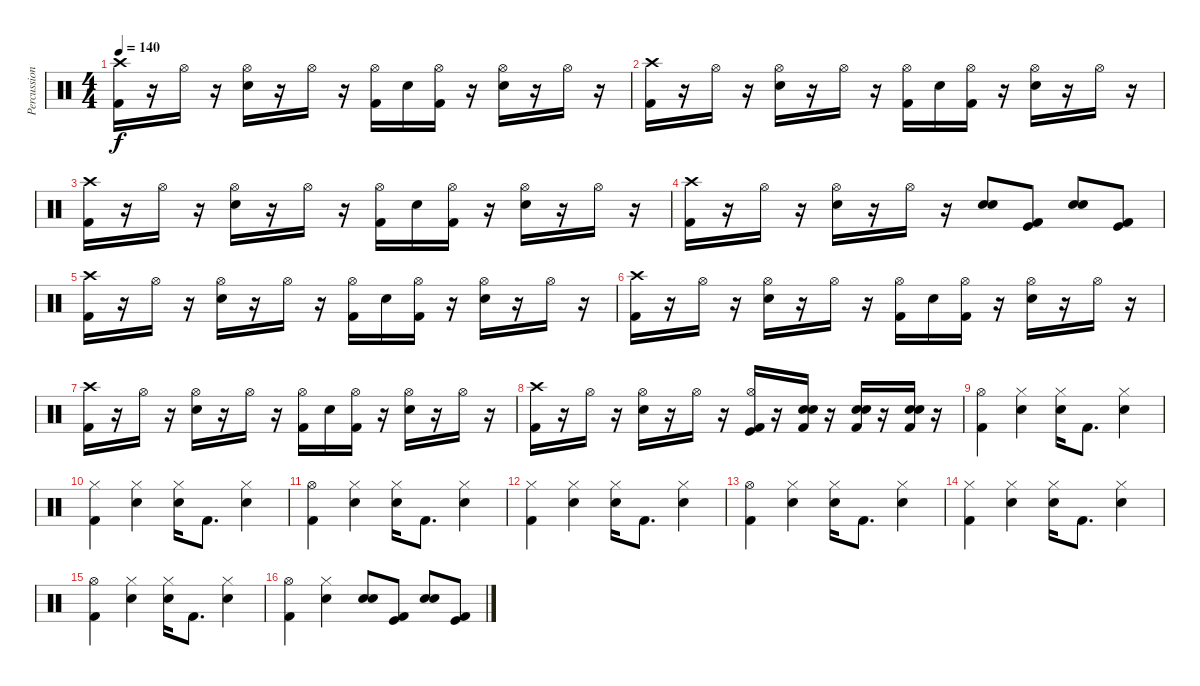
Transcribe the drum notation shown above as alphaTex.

\track ("Percussions" "Percussion") {instrument percussion}
\staff {score}
\articulation defaults
\ts (4 4)
\tempo 140
\clef neutral
\ks c
("Crash high (hit)" "Kick (hit) 2").16{dy f} r.16 "Hi-Hat (open)".16 r.16 ("Hi-Hat (open)" "Electric Snare (hit)").16 r.16 "Hi-Hat (open)".16 r.16 ("Hi-Hat (open)" "Kick (hit) 2").16 "Electric Snare (hit)".16 ("Hi-Hat (open)" "Kick (hit) 2").16 r.16 ("Hi-Hat (open)" "Electric Snare (hit)").16 r.16 "Hi-Hat (open)".16 r.16 |
("Crash high (hit)" "Kick (hit) 2").16 r.16 "Hi-Hat (open)".16 r.16 ("Hi-Hat (open)" "Electric Snare (hit)").16 r.16 "Hi-Hat (open)".16 r.16 ("Hi-Hat (open)" "Kick (hit) 2").16 "Electric Snare (hit)".16 ("Hi-Hat (open)" "Kick (hit) 2").16 r.16 ("Hi-Hat (open)" "Electric Snare (hit)").16 r.16 "Hi-Hat (open)".16 r.16 |
("Crash high (hit)" "Kick (hit) 2").16 r.16 "Hi-Hat (open)".16 r.16 ("Hi-Hat (open)" "Electric Snare (hit)").16 r.16 "Hi-Hat (open)".16 r.16 ("Hi-Hat (open)" "Kick (hit) 2").16 "Electric Snare (hit)".16 ("Hi-Hat (open)" "Kick (hit) 2").16 r.16 ("Hi-Hat (open)" "Electric Snare (hit)").16 r.16 "Hi-Hat (open)".16 r.16 |
("Crash high (hit)" "Kick (hit) 2").16 r.16 "Hi-Hat (open)".16 r.16 ("Hi-Hat (open)" "Electric Snare (hit)").16 r.16 "Hi-Hat (open)".16 r.16 ("Snare (hit) 2" "Electric Snare (hit)").8 ("Kick (hit)" "Kick (hit) 2").8 ("Snare (hit) 2" "Electric Snare (hit)").8 ("Kick (hit)" "Kick (hit) 2").8 |
("Crash high (hit)" "Kick (hit) 2").16 r.16 "Hi-Hat (open)".16 r.16 ("Hi-Hat (open)" "Electric Snare (hit)").16 r.16 "Hi-Hat (open)".16 r.16 ("Hi-Hat (open)" "Kick (hit) 2").16 "Electric Snare (hit)".16 ("Hi-Hat (open)" "Kick (hit) 2").16 r.16 ("Hi-Hat (open)" "Electric Snare (hit)").16 r.16 "Hi-Hat (open)".16 r.16 |
("Crash high (hit)" "Kick (hit) 2").16 r.16 "Hi-Hat (open)".16 r.16 ("Hi-Hat (open)" "Electric Snare (hit)").16 r.16 "Hi-Hat (open)".16 r.16 ("Hi-Hat (open)" "Kick (hit) 2").16 "Electric Snare (hit)".16 ("Hi-Hat (open)" "Kick (hit) 2").16 r.16 ("Hi-Hat (open)" "Electric Snare (hit)").16 r.16 "Hi-Hat (open)".16 r.16 |
("Crash high (hit)" "Kick (hit) 2").16 r.16 "Hi-Hat (open)".16 r.16 ("Hi-Hat (open)" "Electric Snare (hit)").16 r.16 "Hi-Hat (open)".16 r.16 ("Hi-Hat (open)" "Kick (hit) 2").16 "Electric Snare (hit)".16 ("Hi-Hat (open)" "Kick (hit) 2").16 r.16 ("Hi-Hat (open)" "Electric Snare (hit)").16 r.16 "Hi-Hat (open)".16 r.16 |
("Crash high (hit)" "Kick (hit) 2").16 r.16 "Hi-Hat (open)".16 r.16 ("Hi-Hat (open)" "Electric Snare (hit)").16 r.16 "Hi-Hat (open)".16 r.16 ("Hi-Hat (open)" "Kick (hit)" "Kick (hit) 2").16 r.16 ("Electric Snare (hit)" "Kick (hit) 2" "Snare (hit) 2").16 r.16 ("Electric Snare (hit)" "Kick (hit) 2" "Snare (hit) 2").16 r.16 ("Electric Snare (hit)" "Kick (hit) 2" "Snare (hit) 2").16 r.16 |
("Hi-Hat (open)" "Kick (hit) 2").4 ("Hi-Hat (closed)" "Electric Snare (hit)").4 ("Hi-Hat (closed)" "Electric Snare (hit)").16 "Kick (hit) 2".8{d} ("Hi-Hat (closed)" "Electric Snare (hit)").4 |
("Hi-Hat (closed)" "Kick (hit) 2").4 ("Hi-Hat (closed)" "Electric Snare (hit)").4 ("Hi-Hat (closed)" "Electric Snare (hit)").16 "Kick (hit) 2".8{d} ("Hi-Hat (closed)" "Electric Snare (hit)").4 |
("Hi-Hat (open)" "Kick (hit) 2").4 ("Hi-Hat (closed)" "Electric Snare (hit)").4 ("Hi-Hat (closed)" "Electric Snare (hit)").16 "Kick (hit) 2".8{d} ("Hi-Hat (closed)" "Electric Snare (hit)").4 |
("Hi-Hat (closed)" "Kick (hit) 2").4 ("Hi-Hat (closed)" "Electric Snare (hit)").4 ("Hi-Hat (closed)" "Electric Snare (hit)").16 "Kick (hit) 2".8{d} ("Hi-Hat (closed)" "Electric Snare (hit)").4 |
("Hi-Hat (open)" "Kick (hit) 2").4 ("Hi-Hat (closed)" "Electric Snare (hit)").4 ("Hi-Hat (closed)" "Electric Snare (hit)").16 "Kick (hit) 2".8{d} ("Hi-Hat (closed)" "Electric Snare (hit)").4 |
("Hi-Hat (closed)" "Kick (hit) 2").4 ("Hi-Hat (closed)" "Electric Snare (hit)").4 ("Hi-Hat (closed)" "Electric Snare (hit)").16 "Kick (hit) 2".8{d} ("Hi-Hat (closed)" "Electric Snare (hit)").4 |
("Hi-Hat (open)" "Kick (hit) 2").4 ("Hi-Hat (closed)" "Electric Snare (hit)").4 ("Hi-Hat (closed)" "Electric Snare (hit)").16 "Kick (hit) 2".8{d} ("Hi-Hat (closed)" "Electric Snare (hit)").4 |
("Hi-Hat (open)" "Kick (hit) 2").4 ("Hi-Hat (closed)" "Electric Snare (hit)").4 ("Snare (hit) 2" "Electric Snare (hit)").8 ("Kick (hit)" "Kick (hit) 2").8 ("Snare (hit) 2" "Electric Snare (hit)").8 ("Kick (hit)" "Kick (hit) 2").8
